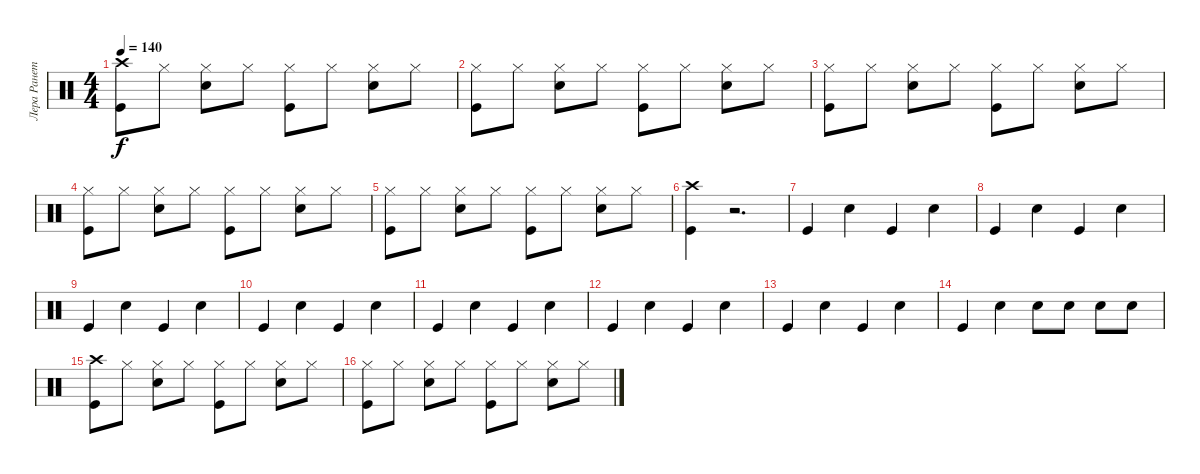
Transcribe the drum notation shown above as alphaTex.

\track ("Лера Ранетка" "Лера Ранет") {instrument percussion}
\staff {score}
\articulation defaults
\ts (4 4)
\tempo 140
\clef neutral
\ks c
("Crash high (hit)" "Kick (hit)").8{dy f} "Hi-Hat (closed)".8 ("Hi-Hat (closed)" "Electric Snare (hit)").8 "Hi-Hat (closed)".8 ("Hi-Hat (closed)" "Kick (hit)").8 "Hi-Hat (closed)".8 ("Hi-Hat (closed)" "Electric Snare (hit)").8 "Hi-Hat (closed)".8 |
("Hi-Hat (closed)" "Kick (hit)").8 "Hi-Hat (closed)".8 ("Hi-Hat (closed)" "Electric Snare (hit)").8 "Hi-Hat (closed)".8 ("Hi-Hat (closed)" "Kick (hit)").8 "Hi-Hat (closed)".8 ("Hi-Hat (closed)" "Electric Snare (hit)").8 "Hi-Hat (closed)".8 |
("Hi-Hat (closed)" "Kick (hit)").8 "Hi-Hat (closed)".8 ("Hi-Hat (closed)" "Electric Snare (hit)").8 "Hi-Hat (closed)".8 ("Hi-Hat (closed)" "Kick (hit)").8 "Hi-Hat (closed)".8 ("Hi-Hat (closed)" "Electric Snare (hit)").8 "Hi-Hat (closed)".8 |
("Hi-Hat (closed)" "Kick (hit)").8 "Hi-Hat (closed)".8 ("Hi-Hat (closed)" "Electric Snare (hit)").8 "Hi-Hat (closed)".8 ("Hi-Hat (closed)" "Kick (hit)").8 "Hi-Hat (closed)".8 ("Hi-Hat (closed)" "Electric Snare (hit)").8 "Hi-Hat (closed)".8 |
("Hi-Hat (closed)" "Kick (hit)").8 "Hi-Hat (closed)".8 ("Hi-Hat (closed)" "Electric Snare (hit)").8 "Hi-Hat (closed)".8 ("Hi-Hat (closed)" "Kick (hit)").8 "Hi-Hat (closed)".8 ("Hi-Hat (closed)" "Electric Snare (hit)").8 "Hi-Hat (closed)".8 |
("Crash high (hit)" "Kick (hit)").4 r.2{d} |
"Kick (hit)".4 "Electric Snare (hit)".4 "Kick (hit)".4 "Electric Snare (hit)".4 |
"Kick (hit)".4 "Electric Snare (hit)".4 "Kick (hit)".4 "Electric Snare (hit)".4 |
"Kick (hit)".4 "Electric Snare (hit)".4 "Kick (hit)".4 "Electric Snare (hit)".4 |
"Kick (hit)".4 "Electric Snare (hit)".4 "Kick (hit)".4 "Electric Snare (hit)".4 |
"Kick (hit)".4 "Electric Snare (hit)".4 "Kick (hit)".4 "Electric Snare (hit)".4 |
"Kick (hit)".4 "Electric Snare (hit)".4 "Kick (hit)".4 "Electric Snare (hit)".4 |
"Kick (hit)".4 "Electric Snare (hit)".4 "Kick (hit)".4 "Electric Snare (hit)".4 |
"Kick (hit)".4 "Electric Snare (hit)".4 "Electric Snare (hit)".8 "Electric Snare (hit)".8 "Electric Snare (hit)".8 "Electric Snare (hit)".8 |
("Crash high (hit)" "Kick (hit)").8 "Hi-Hat (closed)".8 ("Hi-Hat (closed)" "Electric Snare (hit)").8 "Hi-Hat (closed)".8 ("Hi-Hat (closed)" "Kick (hit)").8 "Hi-Hat (closed)".8 ("Hi-Hat (closed)" "Electric Snare (hit)").8 "Hi-Hat (closed)".8 |
("Hi-Hat (closed)" "Kick (hit)").8 "Hi-Hat (closed)".8 ("Hi-Hat (closed)" "Electric Snare (hit)").8 "Hi-Hat (closed)".8 ("Hi-Hat (closed)" "Kick (hit)").8 "Hi-Hat (closed)".8 ("Hi-Hat (closed)" "Electric Snare (hit)").8 "Hi-Hat (closed)".8
